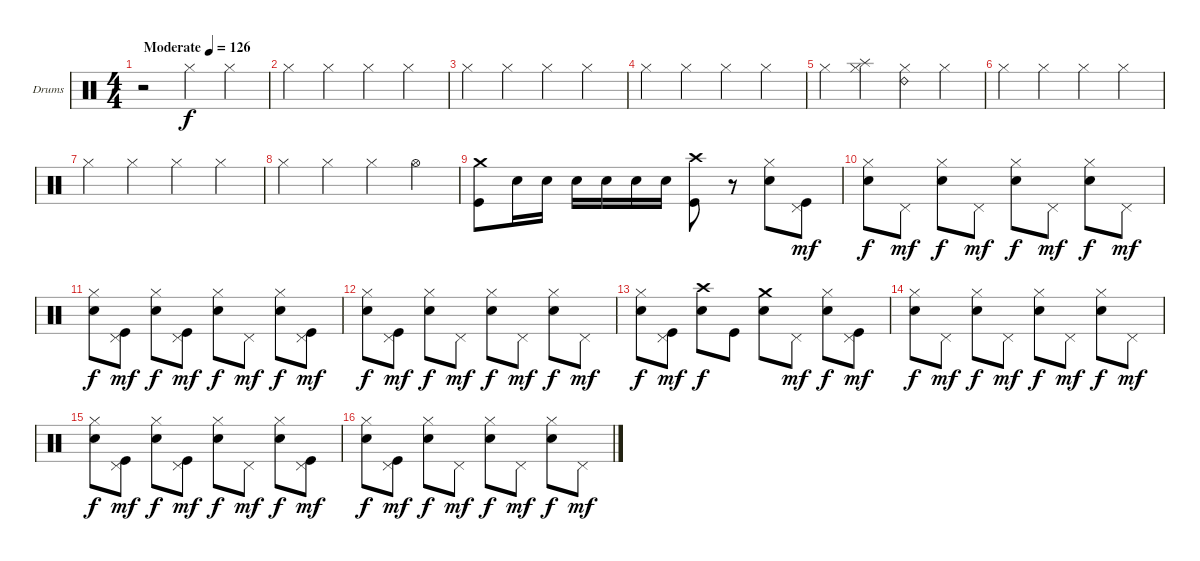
\bracketExtendMode groupsimilarinstruments
\firstSystemTrackNameOrientation horizontal
\otherSystemsTrackNameOrientation horizontal
\track ("Drumkit" "Drums") {instrument percussion}
\staff {score}
\articulation defaults
\ts (4 4)
\beaming (8 2 2 2 2)
\tempo (126 "Moderate")
\clef neutral
\ks c
r.2{dy f} "Hi-Hat (closed)".4 "Hi-Hat (closed)".4 |
"Hi-Hat (closed)".4 "Hi-Hat (closed)".4 "Hi-Hat (closed)".4 "Hi-Hat (closed)".4 |
"Hi-Hat (closed)".4 "Hi-Hat (closed)".4 "Hi-Hat (closed)".4 "Hi-Hat (closed)".4 |
"Hi-Hat (closed)".4 "Hi-Hat (closed)".4 "Hi-Hat (closed)".4 "Hi-Hat (closed)".4 |
"Hi-Hat (closed)".4 ("Hi-Hat (closed)" "Splash (hit)").4 ("Hi-Hat (closed)" "Ride (bell) 2").4 "Hi-Hat (closed)".4 |
"Hi-Hat (closed)".4 "Hi-Hat (closed)".4 "Hi-Hat (closed)".4 "Hi-Hat (closed)".4 |
"Hi-Hat (closed)".4 "Hi-Hat (closed)".4 "Hi-Hat (closed)".4 "Hi-Hat (closed)".4 |
"Hi-Hat (closed)".4 "Hi-Hat (closed)".4 "Hi-Hat (closed)".4 "Hi-Hat (open)".4 |
("Crash medium (hit)" "Kick (hit)").8 "Snare (hit) 2".16 "Snare (hit) 2".16 "Snare (hit) 2".16 "Snare (hit) 2".16 "Snare (hit) 2".16 "Snare (hit) 2".16 ("Crash high (hit)" "Kick (hit)").8 r.8 ("Hi-Hat (closed)" "Snare (hit) 2").8 ("Pedal Hi-Hat (hit)" "Kick (hit)").8{dy mf} |
("Hi-Hat (closed)" "Snare (hit) 2").8{dy f} "Pedal Hi-Hat (hit)".8{dy mf} ("Hi-Hat (closed)" "Snare (hit) 2").8{dy f} "Pedal Hi-Hat (hit)".8{dy mf} ("Hi-Hat (closed)" "Snare (hit) 2").8{dy f} "Pedal Hi-Hat (hit)".8{dy mf} ("Hi-Hat (closed)" "Snare (hit) 2").8{dy f} "Pedal Hi-Hat (hit)".8{dy mf} |
("Hi-Hat (closed)" "Snare (hit) 2").8{dy f} ("Pedal Hi-Hat (hit)" "Kick (hit)").8{dy mf} ("Hi-Hat (closed)" "Snare (hit) 2").8{dy f} ("Pedal Hi-Hat (hit)" "Kick (hit)").8{dy mf} ("Hi-Hat (closed)" "Snare (hit) 2").8{dy f} "Pedal Hi-Hat (hit)".8{dy mf} ("Hi-Hat (closed)" "Snare (hit) 2").8{dy f} ("Pedal Hi-Hat (hit)" "Kick (hit)").8{dy mf} |
("Hi-Hat (closed)" "Snare (hit) 2").8{dy f} ("Pedal Hi-Hat (hit)" "Kick (hit)").8{dy mf} ("Hi-Hat (closed)" "Snare (hit) 2").8{dy f} "Pedal Hi-Hat (hit)".8{dy mf} ("Hi-Hat (closed)" "Snare (hit) 2").8{dy f} "Pedal Hi-Hat (hit)".8{dy mf} ("Hi-Hat (closed)" "Snare (hit) 2").8{dy f} "Pedal Hi-Hat (hit)".8{dy mf} |
("Hi-Hat (closed)" "Snare (hit) 2").8{dy f} ("Pedal Hi-Hat (hit)" "Kick (hit)").8{dy mf} ("Crash high (hit)" "Snare (hit) 2").8{dy f} "Kick (hit)".8 ("Crash medium (hit)" "Snare (hit) 2").8 "Pedal Hi-Hat (hit)".8{dy mf} ("Hi-Hat (closed)" "Snare (hit) 2").8{dy f} ("Pedal Hi-Hat (hit)" "Kick (hit)").8{dy mf} |
("Hi-Hat (closed)" "Snare (hit) 2").8{dy f} "Pedal Hi-Hat (hit)".8{dy mf} ("Hi-Hat (closed)" "Snare (hit) 2").8{dy f} "Pedal Hi-Hat (hit)".8{dy mf} ("Hi-Hat (closed)" "Snare (hit) 2").8{dy f} "Pedal Hi-Hat (hit)".8{dy mf} ("Hi-Hat (closed)" "Snare (hit) 2").8{dy f} "Pedal Hi-Hat (hit)".8{dy mf} |
("Hi-Hat (closed)" "Snare (hit) 2").8{dy f} ("Pedal Hi-Hat (hit)" "Kick (hit)").8{dy mf} ("Hi-Hat (closed)" "Snare (hit) 2").8{dy f} ("Pedal Hi-Hat (hit)" "Kick (hit)").8{dy mf} ("Hi-Hat (closed)" "Snare (hit) 2").8{dy f} "Pedal Hi-Hat (hit)".8{dy mf} ("Hi-Hat (closed)" "Snare (hit) 2").8{dy f} ("Pedal Hi-Hat (hit)" "Kick (hit)").8{dy mf} |
("Hi-Hat (closed)" "Snare (hit) 2").8{dy f} ("Pedal Hi-Hat (hit)" "Kick (hit)").8{dy mf} ("Hi-Hat (closed)" "Snare (hit) 2").8{dy f} "Pedal Hi-Hat (hit)".8{dy mf} ("Hi-Hat (closed)" "Snare (hit) 2").8{dy f} "Pedal Hi-Hat (hit)".8{dy mf} ("Hi-Hat (closed)" "Snare (hit) 2").8{dy f} "Pedal Hi-Hat (hit)".8{dy mf}
